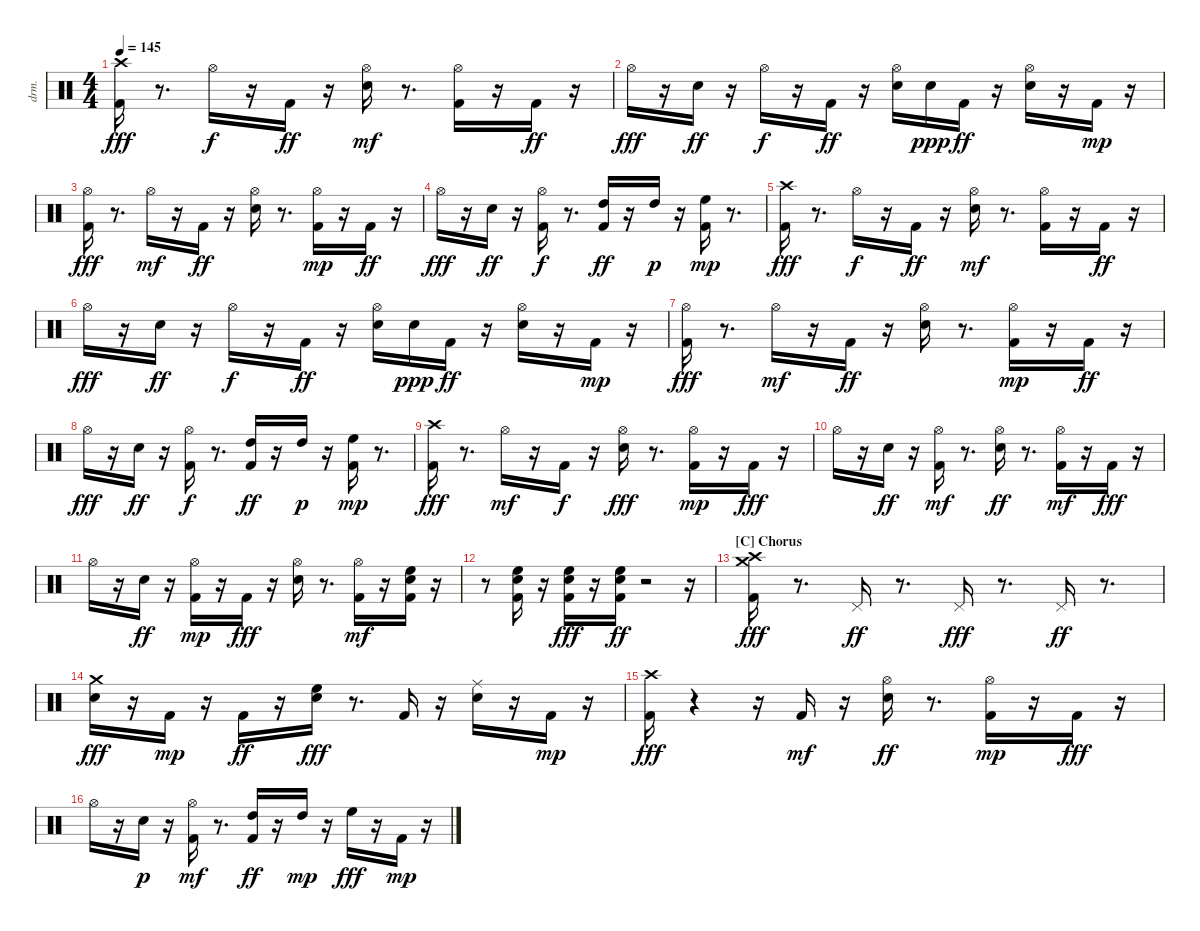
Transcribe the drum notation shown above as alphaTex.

\bracketExtendMode nobrackets
\track ("EZdrummer 3" "drm.") {instrument percussion}
\staff {score}
\articulation defaults
\ts (4 4)
\tempo 145
\clef neutral
\ks aminor
("Kick (hit) 2" "Crash high (hit)"{acc #}).16{dy fff} r.8{d} "Hi-Hat (open)"{acc #}.16{dy f} r.16 "Kick (hit) 2".16{dy ff} r.16 ("Snare (hit) 2" "Hi-Hat (open)"{acc #}).16{dy mf} r.8{d} ("Kick (hit) 2" "Hi-Hat (open)"{acc #}).16 r.16 "Kick (hit) 2".16{dy ff} r.16 |
"Hi-Hat (open)"{acc #}.16{dy fff} r.16 "Snare (hit) 2".16{dy ff} r.16 "Hi-Hat (open)"{acc #}.16{dy f} r.16 "Kick (hit) 2".16{dy ff} r.16 ("Snare (hit) 2" "Hi-Hat (open)"{acc #}).16 "Snare (hit) 2".16{dy ppp} "Kick (hit) 2".16{dy ff} r.16 ("Snare (hit) 2" "Hi-Hat (open)"{acc #}).16 r.16 "Kick (hit) 2".16{dy mp} r.16 |
("Kick (hit) 2" "Hi-Hat (open)"{acc #}).16{dy fff} r.8{d} "Hi-Hat (open)"{acc #}.16{dy mf} r.16 "Kick (hit) 2".16{dy ff} r.16 ("Snare (hit) 2" "Hi-Hat (open)"{acc #}).16 r.8{d} ("Kick (hit) 2" "Hi-Hat (open)"{acc #}).16{dy mp} r.16 "Kick (hit) 2".16{dy ff} r.16 |
"Hi-Hat (open)"{acc #}.16{dy fff} r.16 "Snare (hit) 2".16{dy ff} r.16 ("Kick (hit) 2" "Hi-Hat (open)"{acc #}).16{dy f} r.8{d} ("Kick (hit) 2" "High Tom (hit)").16{dy ff} r.16 "High Tom (hit)".16{dy p} r.16 ("Kick (hit) 2" "High Floor Tom (hit)").16{dy mp} r.8{d} |
("Kick (hit) 2" "Crash high (hit)"{acc #}).16{dy fff} r.8{d} "Hi-Hat (open)"{acc #}.16{dy f} r.16 "Kick (hit) 2".16{dy ff} r.16 ("Snare (hit) 2" "Hi-Hat (open)"{acc #}).16{dy mf} r.8{d} ("Kick (hit) 2" "Hi-Hat (open)"{acc #}).16 r.16 "Kick (hit) 2".16{dy ff} r.16 |
"Hi-Hat (open)"{acc #}.16{dy fff} r.16 "Snare (hit) 2".16{dy ff} r.16 "Hi-Hat (open)"{acc #}.16{dy f} r.16 "Kick (hit) 2".16{dy ff} r.16 ("Snare (hit) 2" "Hi-Hat (open)"{acc #}).16 "Snare (hit) 2".16{dy ppp} "Kick (hit) 2".16{dy ff} r.16 ("Snare (hit) 2" "Hi-Hat (open)"{acc #}).16 r.16 "Kick (hit) 2".16{dy mp} r.16 |
("Kick (hit) 2" "Hi-Hat (open)"{acc #}).16{dy fff} r.8{d} "Hi-Hat (open)"{acc #}.16{dy mf} r.16 "Kick (hit) 2".16{dy ff} r.16 ("Snare (hit) 2" "Hi-Hat (open)"{acc #}).16 r.8{d} ("Kick (hit) 2" "Hi-Hat (open)"{acc #}).16{dy mp} r.16 "Kick (hit) 2".16{dy ff} r.16 |
"Hi-Hat (open)"{acc #}.16{dy fff} r.16 "Snare (hit) 2".16{dy ff} r.16 ("Kick (hit) 2" "Hi-Hat (open)"{acc #}).16{dy f} r.8{d} ("Kick (hit) 2" "High Tom (hit)").16{dy ff} r.16 "High Tom (hit)".16{dy p} r.16 ("Kick (hit) 2" "High Floor Tom (hit)").16{dy mp} r.8{d} |
("Kick (hit) 2" "Crash high (hit)"{acc #}).16{dy fff} r.8{d} "Hi-Hat (open)"{acc #}.16{dy mf} r.16 "Kick (hit) 2".16{dy f} r.16 ("Snare (hit) 2" "Hi-Hat (open)"{acc #}).16{dy fff} r.8{d} ("Kick (hit) 2" "Hi-Hat (open)"{acc #}).16{dy mp} r.16 "Kick (hit) 2".16{dy fff} r.16 |
"Hi-Hat (open)"{acc #}.16 r.16 "Snare (hit) 2".16{dy ff} r.16 ("Kick (hit) 2" "Hi-Hat (open)"{acc #}).16{dy mf} r.8{d} ("Snare (hit) 2" "Hi-Hat (open)"{acc #}).16{dy ff} r.8{d} ("Kick (hit) 2" "Hi-Hat (open)"{acc #}).16{dy mf} r.16 "Kick (hit) 2".16{dy fff} r.16 |
"Hi-Hat (open)"{acc #}.16 r.16 "Snare (hit) 2".16{dy ff} r.16 ("Kick (hit) 2" "Hi-Hat (open)"{acc #}).16{dy mp} r.16 "Kick (hit) 2".16{dy fff} r.16 ("Snare (hit) 2" "Hi-Hat (open)"{acc #}).16 r.8{d} ("Kick (hit) 2" "Hi-Hat (open)"{acc #}).16{dy mf} r.16 ("Kick (hit) 2" "Snare (hit) 2" "High Floor Tom (hit)").16 r.16 |
r.8 ("Kick (hit) 2" "Snare (hit) 2" "High Floor Tom (hit)").16 r.16 ("Kick (hit) 2" "Snare (hit) 2" "High Floor Tom (hit)").16{dy fff} r.16 ("Kick (hit) 2" "Snare (hit) 2" "High Floor Tom (hit)").16{dy ff} r.2 r.16 |
\section ("C" "Chorus")
("Kick (hit) 2" "Crash high (hit)"{acc #} "Crash medium (hit)").16{dy fff} r.8{d} "Pedal Hi-Hat (hit)"{acc #}.16{dy ff} r.8{d} "Pedal Hi-Hat (hit)"{acc #}.16{dy fff} r.8{d} "Pedal Hi-Hat (hit)"{acc #}.16{dy ff} r.8{d} |
("Snare (hit) 2" "Crash medium (hit)").16{dy fff} r.16 "Kick (hit) 2".16{dy mp} r.16 "Kick (hit) 2".16{dy ff} r.16 ("Snare (hit) 2" "High Floor Tom (hit)").16{dy fff} r.8{d} "Kick (hit) 2".16 r.16 ("Snare (hit) 2" "Ride (middle)"{acc #}).16 r.16 "Kick (hit) 2".16{dy mp} r.16 |
("Kick (hit) 2" "Crash high (hit)"{acc #}).16{dy fff} r.4 r.16 "Kick (hit) 2".16{dy mf} r.16 ("Snare (hit) 2" "Hi-Hat (open)"{acc #}).16{dy ff} r.8{d} ("Kick (hit) 2" "Hi-Hat (open)"{acc #}).16{dy mp} r.16 "Kick (hit) 2".16{dy fff} r.16 |
"Hi-Hat (open)"{acc #}.16 r.16 "Snare (hit) 2".16{dy p} r.16 ("Kick (hit) 2" "Hi-Hat (open)"{acc #}).16{dy mf} r.8{d} ("Kick (hit) 2" "High Tom (hit)").16{dy ff} r.16 "High Tom (hit)".16{dy mp} r.16 "High Floor Tom (hit)".16{dy fff} r.16 "Kick (hit) 2".16{dy mp} r.16
